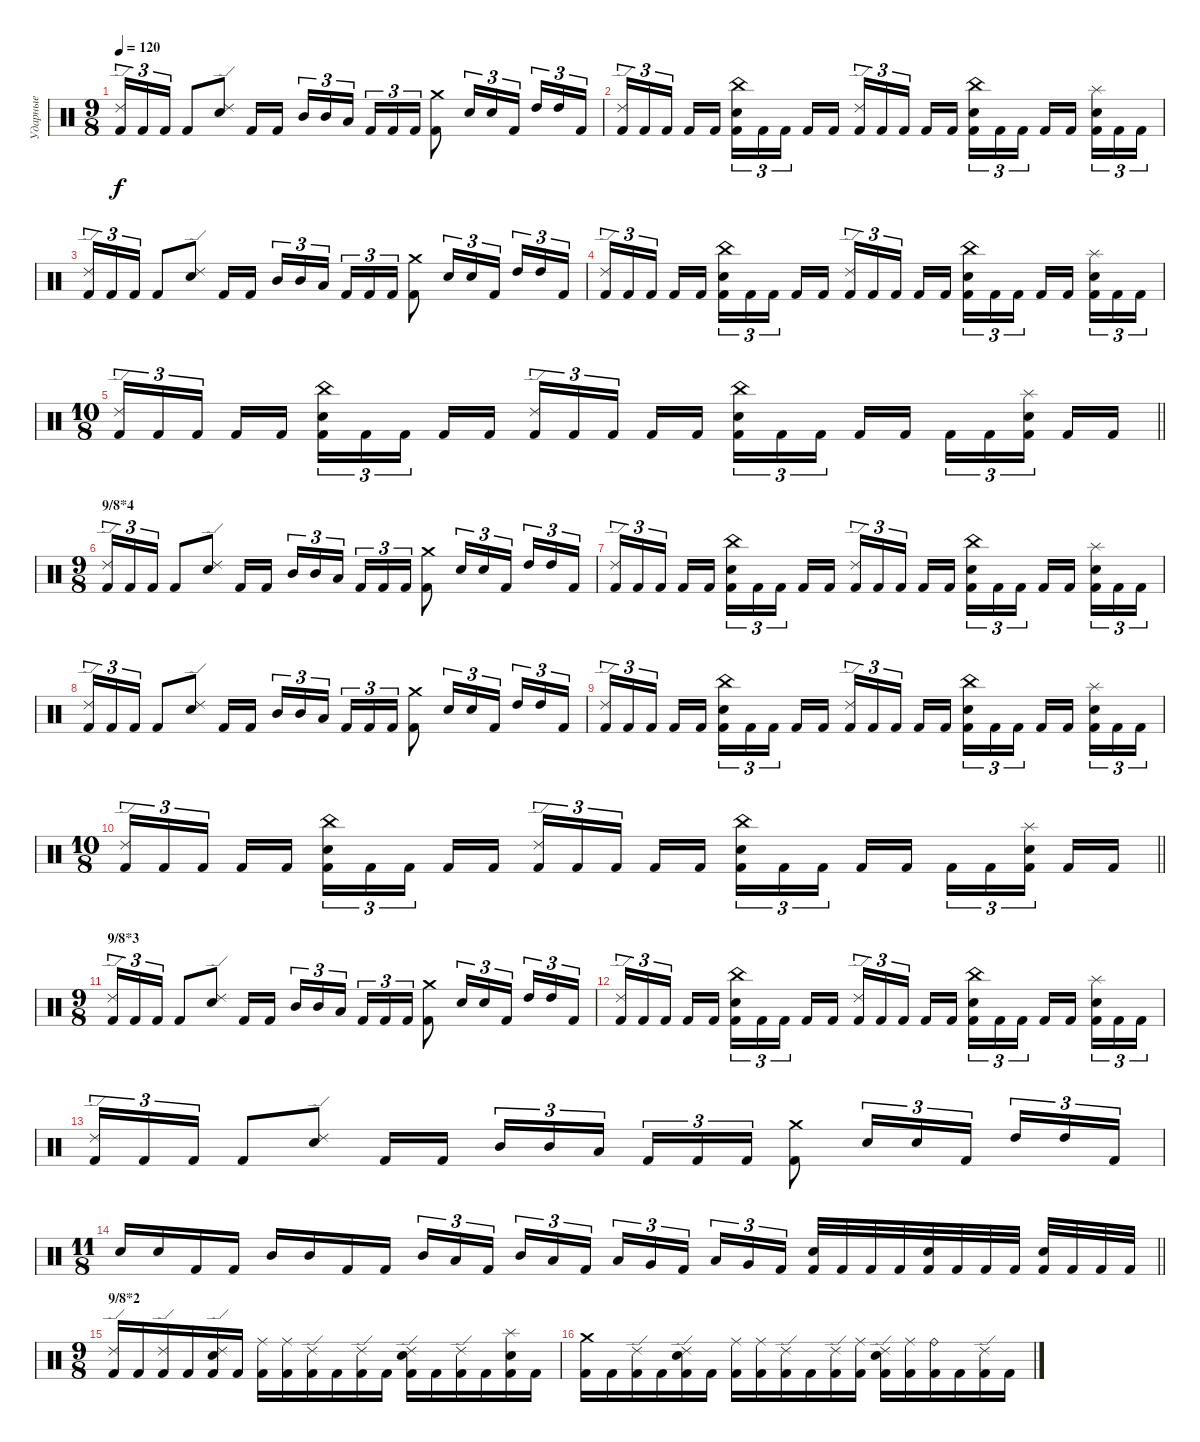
\track ("Ударные" "Ударные") {instrument percussion}
\staff {score}
\articulation defaults
\ts (9 8)
\tempo 120
\clef neutral
\ks c
("Ride (edge) 2" "Kick (hit) 2").16{tu (3 2) dy f volume 0} "Kick (hit) 2".16{tu (3 2) volume 9} "Kick (hit) 2".16{tu (3 2)} "Kick (hit) 2".8 ("Ride (edge) 2" "Snare (hit) 2").8 "Kick (hit) 2".16 "Kick (hit) 2".16 "Mid Tom (hit)".16{tu (3 2)} "Mid Tom (hit)".16{tu (3 2)} "Low Tom (hit)".16{tu (3 2)} "Kick (hit) 2".16{tu (3 2)} "Kick (hit) 2".16{tu (3 2)} "Kick (hit) 2".16{tu (3 2)} ("Crash medium (hit)" "Kick (hit) 2").8 "Snare (hit) 2".16{tu (3 2)} "Snare (hit) 2".16{tu (3 2)} "Kick (hit) 2".16{tu (3 2)} "High Tom (hit)".16{tu (3 2)} "High Tom (hit)".16{tu (3 2)} "Kick (hit) 2".16{tu (3 2)} |
("Ride (edge) 2" "Kick (hit) 2").16{tu (3 2)} "Kick (hit) 2".16{tu (3 2)} "Kick (hit) 2".16{tu (3 2)} "Kick (hit) 2".16 "Kick (hit) 2".16 ("China (hit)" "Snare (hit) 2" "Kick (hit) 2").16{tu (3 2)} "Kick (hit) 2".16{tu (3 2)} "Kick (hit) 2".16{tu (3 2)} "Kick (hit) 2".16 "Kick (hit) 2".16 ("Ride (edge) 2" "Kick (hit) 2").16{tu (3 2)} "Kick (hit) 2".16{tu (3 2)} "Kick (hit) 2".16{tu (3 2)} "Kick (hit) 2".16 "Kick (hit) 2".16 ("China (hit)" "Snare (hit) 2" "Kick (hit) 2").16{tu (3 2)} "Kick (hit) 2".16{tu (3 2)} "Kick (hit) 2".16{tu (3 2)} "Kick (hit) 2".16 "Kick (hit) 2".16 ("Splash (hit)" "Snare (hit) 2" "Kick (hit) 2").16{tu (3 2)} "Kick (hit) 2".16{tu (3 2)} "Kick (hit) 2".16{tu (3 2)} |
("Ride (edge) 2" "Kick (hit) 2").16{tu (3 2)} "Kick (hit) 2".16{tu (3 2)} "Kick (hit) 2".16{tu (3 2)} "Kick (hit) 2".8 ("Ride (edge) 2" "Snare (hit) 2").8 "Kick (hit) 2".16 "Kick (hit) 2".16 "Mid Tom (hit)".16{tu (3 2)} "Mid Tom (hit)".16{tu (3 2)} "Low Tom (hit)".16{tu (3 2)} "Kick (hit) 2".16{tu (3 2)} "Kick (hit) 2".16{tu (3 2)} "Kick (hit) 2".16{tu (3 2)} ("Crash medium (hit)" "Kick (hit) 2").8 "Snare (hit) 2".16{tu (3 2)} "Snare (hit) 2".16{tu (3 2)} "Kick (hit) 2".16{tu (3 2)} "High Tom (hit)".16{tu (3 2)} "High Tom (hit)".16{tu (3 2)} "Kick (hit) 2".16{tu (3 2)} |
("Ride (edge) 2" "Kick (hit) 2").16{tu (3 2)} "Kick (hit) 2".16{tu (3 2)} "Kick (hit) 2".16{tu (3 2)} "Kick (hit) 2".16 "Kick (hit) 2".16 ("China (hit)" "Snare (hit) 2" "Kick (hit) 2").16{tu (3 2)} "Kick (hit) 2".16{tu (3 2)} "Kick (hit) 2".16{tu (3 2)} "Kick (hit) 2".16 "Kick (hit) 2".16 ("Ride (edge) 2" "Kick (hit) 2").16{tu (3 2)} "Kick (hit) 2".16{tu (3 2)} "Kick (hit) 2".16{tu (3 2)} "Kick (hit) 2".16 "Kick (hit) 2".16 ("China (hit)" "Snare (hit) 2" "Kick (hit) 2").16{tu (3 2)} "Kick (hit) 2".16{tu (3 2)} "Kick (hit) 2".16{tu (3 2)} "Kick (hit) 2".16 "Kick (hit) 2".16 ("Splash (hit)" "Snare (hit) 2" "Kick (hit) 2").16{tu (3 2)} "Kick (hit) 2".16{tu (3 2)} "Kick (hit) 2".16{tu (3 2)} |
\ts (10 8)
\barLineRight lightlight
("Ride (edge) 2" "Kick (hit) 2").16{tu (3 2)} "Kick (hit) 2".16{tu (3 2)} "Kick (hit) 2".16{tu (3 2)} "Kick (hit) 2".16 "Kick (hit) 2".16 ("China (hit)" "Snare (hit) 2" "Kick (hit) 2").16{tu (3 2)} "Kick (hit) 2".16{tu (3 2)} "Kick (hit) 2".16{tu (3 2)} "Kick (hit) 2".16 "Kick (hit) 2".16 ("Ride (edge) 2" "Kick (hit) 2").16{tu (3 2)} "Kick (hit) 2".16{tu (3 2)} "Kick (hit) 2".16{tu (3 2)} "Kick (hit) 2".16 "Kick (hit) 2".16 ("China (hit)" "Snare (hit) 2" "Kick (hit) 2").16{tu (3 2)} "Kick (hit) 2".16{tu (3 2)} "Kick (hit) 2".16{tu (3 2)} "Kick (hit) 2".16 "Kick (hit) 2".16 "Kick (hit) 2".16{tu (3 2)} "Kick (hit) 2".16{tu (3 2)} ("Splash (hit)" "Snare (hit) 2" "Kick (hit) 2").16{tu (3 2)} "Kick (hit) 2".16 "Kick (hit) 2".16 |
\ts (9 8)
\section ("" "9/8*4")
("Ride (edge) 2" "Kick (hit) 2").16{tu (3 2)} "Kick (hit) 2".16{tu (3 2)} "Kick (hit) 2".16{tu (3 2)} "Kick (hit) 2".8 ("Ride (edge) 2" "Snare (hit) 2").8 "Kick (hit) 2".16 "Kick (hit) 2".16 "Mid Tom (hit)".16{tu (3 2)} "Mid Tom (hit)".16{tu (3 2)} "Low Tom (hit)".16{tu (3 2)} "Kick (hit) 2".16{tu (3 2)} "Kick (hit) 2".16{tu (3 2)} "Kick (hit) 2".16{tu (3 2)} ("Crash medium (hit)" "Kick (hit) 2").8 "Snare (hit) 2".16{tu (3 2)} "Snare (hit) 2".16{tu (3 2)} "Kick (hit) 2".16{tu (3 2)} "High Tom (hit)".16{tu (3 2)} "High Tom (hit)".16{tu (3 2)} "Kick (hit) 2".16{tu (3 2)} |
("Ride (edge) 2" "Kick (hit) 2").16{tu (3 2)} "Kick (hit) 2".16{tu (3 2)} "Kick (hit) 2".16{tu (3 2)} "Kick (hit) 2".16 "Kick (hit) 2".16 ("China (hit)" "Snare (hit) 2" "Kick (hit) 2").16{tu (3 2)} "Kick (hit) 2".16{tu (3 2)} "Kick (hit) 2".16{tu (3 2)} "Kick (hit) 2".16 "Kick (hit) 2".16 ("Ride (edge) 2" "Kick (hit) 2").16{tu (3 2)} "Kick (hit) 2".16{tu (3 2)} "Kick (hit) 2".16{tu (3 2)} "Kick (hit) 2".16 "Kick (hit) 2".16 ("China (hit)" "Snare (hit) 2" "Kick (hit) 2").16{tu (3 2)} "Kick (hit) 2".16{tu (3 2)} "Kick (hit) 2".16{tu (3 2)} "Kick (hit) 2".16 "Kick (hit) 2".16 ("Splash (hit)" "Snare (hit) 2" "Kick (hit) 2").16{tu (3 2)} "Kick (hit) 2".16{tu (3 2)} "Kick (hit) 2".16{tu (3 2)} |
("Ride (edge) 2" "Kick (hit) 2").16{tu (3 2)} "Kick (hit) 2".16{tu (3 2)} "Kick (hit) 2".16{tu (3 2)} "Kick (hit) 2".8 ("Ride (edge) 2" "Snare (hit) 2").8 "Kick (hit) 2".16 "Kick (hit) 2".16 "Mid Tom (hit)".16{tu (3 2)} "Mid Tom (hit)".16{tu (3 2)} "Low Tom (hit)".16{tu (3 2)} "Kick (hit) 2".16{tu (3 2)} "Kick (hit) 2".16{tu (3 2)} "Kick (hit) 2".16{tu (3 2)} ("Crash medium (hit)" "Kick (hit) 2").8 "Snare (hit) 2".16{tu (3 2)} "Snare (hit) 2".16{tu (3 2)} "Kick (hit) 2".16{tu (3 2)} "High Tom (hit)".16{tu (3 2)} "High Tom (hit)".16{tu (3 2)} "Kick (hit) 2".16{tu (3 2)} |
("Ride (edge) 2" "Kick (hit) 2").16{tu (3 2)} "Kick (hit) 2".16{tu (3 2)} "Kick (hit) 2".16{tu (3 2)} "Kick (hit) 2".16 "Kick (hit) 2".16 ("China (hit)" "Snare (hit) 2" "Kick (hit) 2").16{tu (3 2)} "Kick (hit) 2".16{tu (3 2)} "Kick (hit) 2".16{tu (3 2)} "Kick (hit) 2".16 "Kick (hit) 2".16 ("Ride (edge) 2" "Kick (hit) 2").16{tu (3 2)} "Kick (hit) 2".16{tu (3 2)} "Kick (hit) 2".16{tu (3 2)} "Kick (hit) 2".16 "Kick (hit) 2".16 ("China (hit)" "Snare (hit) 2" "Kick (hit) 2").16{tu (3 2)} "Kick (hit) 2".16{tu (3 2)} "Kick (hit) 2".16{tu (3 2)} "Kick (hit) 2".16 "Kick (hit) 2".16 ("Splash (hit)" "Snare (hit) 2" "Kick (hit) 2").16{tu (3 2)} "Kick (hit) 2".16{tu (3 2)} "Kick (hit) 2".16{tu (3 2)} |
\ts (10 8)
\barLineRight lightlight
("Ride (edge) 2" "Kick (hit) 2").16{tu (3 2)} "Kick (hit) 2".16{tu (3 2)} "Kick (hit) 2".16{tu (3 2)} "Kick (hit) 2".16 "Kick (hit) 2".16 ("China (hit)" "Snare (hit) 2" "Kick (hit) 2").16{tu (3 2)} "Kick (hit) 2".16{tu (3 2)} "Kick (hit) 2".16{tu (3 2)} "Kick (hit) 2".16 "Kick (hit) 2".16 ("Ride (edge) 2" "Kick (hit) 2").16{tu (3 2)} "Kick (hit) 2".16{tu (3 2)} "Kick (hit) 2".16{tu (3 2)} "Kick (hit) 2".16 "Kick (hit) 2".16 ("China (hit)" "Snare (hit) 2" "Kick (hit) 2").16{tu (3 2)} "Kick (hit) 2".16{tu (3 2)} "Kick (hit) 2".16{tu (3 2)} "Kick (hit) 2".16 "Kick (hit) 2".16 "Kick (hit) 2".16{tu (3 2)} "Kick (hit) 2".16{tu (3 2)} ("Splash (hit)" "Snare (hit) 2" "Kick (hit) 2").16{tu (3 2)} "Kick (hit) 2".16 "Kick (hit) 2".16 |
\ts (9 8)
\section ("" "9/8*3")
("Ride (edge) 2" "Kick (hit) 2").16{tu (3 2)} "Kick (hit) 2".16{tu (3 2)} "Kick (hit) 2".16{tu (3 2)} "Kick (hit) 2".8 ("Ride (edge) 2" "Snare (hit) 2").8 "Kick (hit) 2".16 "Kick (hit) 2".16 "Mid Tom (hit)".16{tu (3 2)} "Mid Tom (hit)".16{tu (3 2)} "Low Tom (hit)".16{tu (3 2)} "Kick (hit) 2".16{tu (3 2)} "Kick (hit) 2".16{tu (3 2)} "Kick (hit) 2".16{tu (3 2)} ("Crash medium (hit)" "Kick (hit) 2").8 "Snare (hit) 2".16{tu (3 2)} "Snare (hit) 2".16{tu (3 2)} "Kick (hit) 2".16{tu (3 2)} "High Tom (hit)".16{tu (3 2)} "High Tom (hit)".16{tu (3 2)} "Kick (hit) 2".16{tu (3 2)} |
("Ride (edge) 2" "Kick (hit) 2").16{tu (3 2)} "Kick (hit) 2".16{tu (3 2)} "Kick (hit) 2".16{tu (3 2)} "Kick (hit) 2".16 "Kick (hit) 2".16 ("China (hit)" "Snare (hit) 2" "Kick (hit) 2").16{tu (3 2)} "Kick (hit) 2".16{tu (3 2)} "Kick (hit) 2".16{tu (3 2)} "Kick (hit) 2".16 "Kick (hit) 2".16 ("Ride (edge) 2" "Kick (hit) 2").16{tu (3 2)} "Kick (hit) 2".16{tu (3 2)} "Kick (hit) 2".16{tu (3 2)} "Kick (hit) 2".16 "Kick (hit) 2".16 ("China (hit)" "Snare (hit) 2" "Kick (hit) 2").16{tu (3 2)} "Kick (hit) 2".16{tu (3 2)} "Kick (hit) 2".16{tu (3 2)} "Kick (hit) 2".16 "Kick (hit) 2".16 ("Splash (hit)" "Snare (hit) 2" "Kick (hit) 2").16{tu (3 2)} "Kick (hit) 2".16{tu (3 2)} "Kick (hit) 2".16{tu (3 2)} |
("Ride (edge) 2" "Kick (hit) 2").16{tu (3 2)} "Kick (hit) 2".16{tu (3 2)} "Kick (hit) 2".16{tu (3 2)} "Kick (hit) 2".8 ("Ride (edge) 2" "Snare (hit) 2").8 "Kick (hit) 2".16 "Kick (hit) 2".16 "Mid Tom (hit)".16{tu (3 2)} "Mid Tom (hit)".16{tu (3 2)} "Low Tom (hit)".16{tu (3 2)} "Kick (hit) 2".16{tu (3 2)} "Kick (hit) 2".16{tu (3 2)} "Kick (hit) 2".16{tu (3 2)} ("Crash medium (hit)" "Kick (hit) 2").8 "Snare (hit) 2".16{tu (3 2)} "Snare (hit) 2".16{tu (3 2)} "Kick (hit) 2".16{tu (3 2)} "High Tom (hit)".16{tu (3 2)} "High Tom (hit)".16{tu (3 2)} "Kick (hit) 2".16{tu (3 2)} |
\ts (11 8)
\barLineRight lightlight "Snare (hit) 2".16 "Snare (hit) 2".16 "Kick (hit) 2".16 "Kick (hit) 2".16 "Mid Tom (hit)".16 "Mid Tom (hit)".16 "Kick (hit) 2".16 "Kick (hit) 2".16 "Mid Tom (hit)".16{tu (3 2)} "Low Tom (hit)".16{tu (3 2)} "Kick (hit) 2".16{tu (3 2)} "Mid Tom (hit)".16{tu (3 2)} "Low Tom (hit)".16{tu (3 2)} "Kick (hit) 2".16{tu (3 2)} "Low Tom (hit)".16{tu (3 2)} "Very Low Tom (hit)".16{tu (3 2)} "Kick (hit) 2".16{tu (3 2)} "Low Tom (hit)".16{tu (3 2)} "Very Low Tom (hit)".16{tu (3 2)} "Kick (hit) 2".16{tu (3 2)}
("Snare (hit) 2" "Kick (hit) 2").32 "Kick (hit) 2".32 "Kick (hit) 2".32 "Kick (hit) 2".32 ("Snare (hit) 2" "Kick (hit) 2").32 "Kick (hit) 2".32 "Kick (hit) 2".32 "Kick (hit) 2".32 ("Snare (hit) 2" "Kick (hit) 2").32 "Kick (hit) 2".32 "Kick (hit) 2".32 "Kick (hit) 2".32 |
\ts (9 8)
\section ("" "9/8*2")
("Ride (edge) 2" "Kick (hit) 2").16 "Kick (hit) 2".16 ("Ride (edge) 2" "Kick (hit) 2").16 "Kick (hit) 2".16 ("Ride (edge) 2" "Snare (hit) 2" "Kick (hit) 2").16 "Kick (hit) 2".16 ("Ride (middle)" "Kick (hit) 2").16 ("Ride (middle)" "Kick (hit) 2").16 ("Ride (edge) 2" "Kick (hit) 2").16 "Kick (hit) 2".16 ("Ride (edge) 2" "Kick (hit) 2").16 "Kick (hit) 2".16 ("Ride (edge) 2" "Snare (hit) 2" "Kick (hit) 2").16 "Kick (hit) 2".16 ("Ride (edge) 2" "Kick (hit) 2").16 "Kick (hit) 2".16 ("Splash (hit)" "Snare (hit) 2" "Kick (hit) 2").16 "Kick (hit) 2".16 |
("Crash medium (hit)" "Kick (hit) 2").16 "Kick (hit) 2".16 ("Ride (edge) 2" "Kick (hit) 2").16 "Kick (hit) 2".16 ("Ride (edge) 2" "Snare (hit) 2" "Kick (hit) 2").16 "Kick (hit) 2".16 ("Ride (middle)" "Kick (hit) 2").16 ("Ride (middle)" "Kick (hit) 2").16 ("Ride (edge) 2" "Kick (hit) 2").16 "Kick (hit) 2".16 ("Ride (edge) 2" "Kick (hit) 2").16 ("Ride (middle)" "Kick (hit) 2").16 ("Ride (edge) 2" "Snare (hit) 2" "Kick (hit) 2").16 ("Ride (middle)" "Kick (hit) 2").16 ("Ride (bell)" "Kick (hit) 2").16 "Kick (hit) 2".16 ("Ride (edge) 2" "Kick (hit) 2").16 "Kick (hit) 2".16
